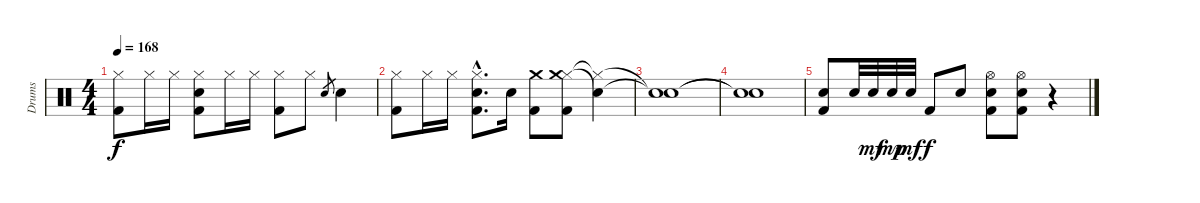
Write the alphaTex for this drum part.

\track ("Drums" "Drums") {instrument percussion}
\staff {score}
\articulation defaults
\ts (4 4)
\tempo 168
\clef neutral
\ks c
("Hi-Hat (closed)" "Kick (hit) 2").8{dy f} "Hi-Hat (closed)".16 "Hi-Hat (closed)".16 ("Hi-Hat (closed)" "Snare (hit) 2" "Kick (hit) 2").8 "Hi-Hat (closed)".16 "Hi-Hat (closed)".16 ("Hi-Hat (closed)" "Kick (hit) 2").8 "Hi-Hat (closed)".8 "Snare (hit) 2".8{gr} "Snare (hit) 2".4 |
("Hi-Hat (closed)" "Kick (hit) 2").8 "Hi-Hat (closed)".16 "Hi-Hat (closed)".16 ("Hi-Hat (closed)"{hac} "Snare (hit) 2"{hac} "Kick (hit) 2"{hac}).8{d} "Snare (hit) 2".16 ("Crash medium (hit)" "Kick (hit) 2").8 ("Hi-Hat (closed)" "Crash medium (hit)" "Kick (hit) 2").8 ("Hi-Hat (closed)"{t} "Snare (hit)"{t}).4 |
("Snare (hit)"{t} "Snare (hit)"{t}).1 |
("Snare (hit)"{t} "Snare (hit)"{t}).1 |
("Snare (hit) 2" "Kick (hit) 2").8 "Snare (hit) 2".32 "Snare (hit) 2".32{dy mf} "Snare (hit) 2".32{dy mp} "Snare (hit) 2".32{dy mf} "Kick (hit) 2".8{dy f} "Snare (hit) 2".8 ("Hi-Hat (open)" "Snare (hit) 2" "Kick (hit) 2").8 ("Hi-Hat (open)" "Snare (hit) 2" "Kick (hit) 2").8 r.4
